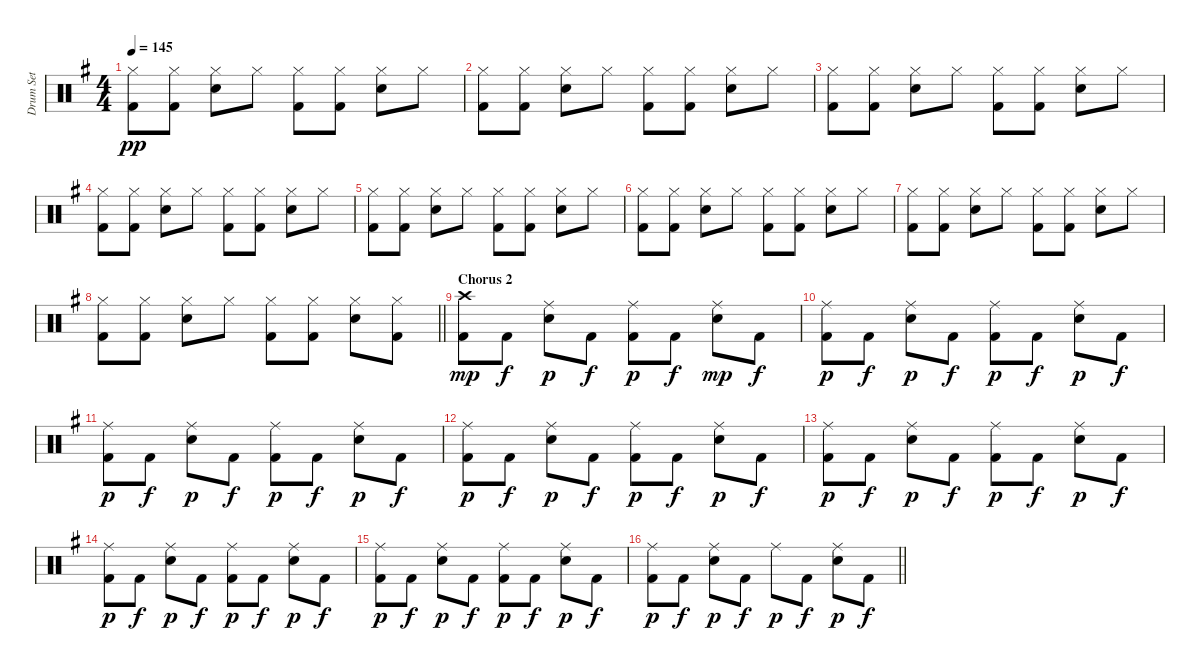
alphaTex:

\track ("Drum Set" "Drum Set") {instrument percussion}
\staff {score}
\articulation defaults
\ts (4 4)
\tempo 145
\clef neutral
\ks g
("Hi-Hat (closed)" "Kick (hit) 2").8{dy pp} ("Hi-Hat (closed)" "Kick (hit) 2").8 ("Hi-Hat (closed)" "Electric Snare (hit)").8 "Hi-Hat (closed)".8 ("Hi-Hat (closed)" "Kick (hit) 2").8 ("Hi-Hat (closed)" "Kick (hit) 2").8 ("Hi-Hat (closed)" "Electric Snare (hit)").8 "Hi-Hat (closed)".8 |
("Hi-Hat (closed)" "Kick (hit) 2").8 ("Hi-Hat (closed)" "Kick (hit) 2").8 ("Hi-Hat (closed)" "Electric Snare (hit)").8 "Hi-Hat (closed)".8 ("Hi-Hat (closed)" "Kick (hit) 2").8 ("Hi-Hat (closed)" "Kick (hit) 2").8 ("Hi-Hat (closed)" "Electric Snare (hit)").8 "Hi-Hat (closed)".8 |
("Hi-Hat (closed)" "Kick (hit) 2").8 ("Hi-Hat (closed)" "Kick (hit) 2").8 ("Hi-Hat (closed)" "Electric Snare (hit)").8 "Hi-Hat (closed)".8 ("Hi-Hat (closed)" "Kick (hit) 2").8 ("Hi-Hat (closed)" "Kick (hit) 2").8 ("Hi-Hat (closed)" "Electric Snare (hit)").8 "Hi-Hat (closed)".8 |
("Hi-Hat (closed)" "Kick (hit) 2").8 ("Hi-Hat (closed)" "Kick (hit) 2").8 ("Hi-Hat (closed)" "Electric Snare (hit)").8 "Hi-Hat (closed)".8 ("Hi-Hat (closed)" "Kick (hit) 2").8 ("Hi-Hat (closed)" "Kick (hit) 2").8 ("Hi-Hat (closed)" "Electric Snare (hit)").8 "Hi-Hat (closed)".8 |
("Hi-Hat (closed)" "Kick (hit) 2").8 ("Hi-Hat (closed)" "Kick (hit) 2").8 ("Hi-Hat (closed)" "Electric Snare (hit)").8 "Hi-Hat (closed)".8 ("Hi-Hat (closed)" "Kick (hit) 2").8 ("Hi-Hat (closed)" "Kick (hit) 2").8 ("Hi-Hat (closed)" "Electric Snare (hit)").8 "Hi-Hat (closed)".8 |
("Hi-Hat (closed)" "Kick (hit) 2").8 ("Hi-Hat (closed)" "Kick (hit) 2").8 ("Hi-Hat (closed)" "Electric Snare (hit)").8 "Hi-Hat (closed)".8 ("Hi-Hat (closed)" "Kick (hit) 2").8 ("Hi-Hat (closed)" "Kick (hit) 2").8 ("Hi-Hat (closed)" "Electric Snare (hit)").8 "Hi-Hat (closed)".8 |
("Hi-Hat (closed)" "Kick (hit) 2").8 ("Hi-Hat (closed)" "Kick (hit) 2").8 ("Hi-Hat (closed)" "Electric Snare (hit)").8 "Hi-Hat (closed)".8 ("Hi-Hat (closed)" "Kick (hit) 2").8 ("Hi-Hat (closed)" "Kick (hit) 2").8 ("Hi-Hat (closed)" "Electric Snare (hit)").8 "Hi-Hat (closed)".8 |
\barLineRight lightlight
("Hi-Hat (closed)" "Kick (hit) 2").8 ("Hi-Hat (closed)" "Kick (hit) 2").8 ("Hi-Hat (closed)" "Electric Snare (hit)").8 "Hi-Hat (closed)".8 ("Hi-Hat (closed)" "Kick (hit) 2").8 ("Hi-Hat (closed)" "Kick (hit) 2").8 ("Hi-Hat (closed)" "Electric Snare (hit)").8 ("Hi-Hat (closed)" "Kick (hit) 2").8 |
\section ("" "Chorus 2")
("Crash high (hit)" "Kick (hit) 2").8{dy mp} "Kick (hit) 2".8{dy f} ("Electric Snare (hit)" "Ride (middle)").8{dy p} "Kick (hit) 2".8{dy f} ("Kick (hit) 2" "Ride (middle)").8{dy p} "Kick (hit) 2".8{dy f} ("Electric Snare (hit)" "Ride (middle)").8{dy mp} "Kick (hit) 2".8{dy f} |
("Kick (hit) 2" "Ride (middle)").8{dy p} "Kick (hit) 2".8{dy f} ("Electric Snare (hit)" "Ride (middle)").8{dy p} "Kick (hit) 2".8{dy f} ("Kick (hit) 2" "Ride (middle)").8{dy p} "Kick (hit) 2".8{dy f} ("Electric Snare (hit)" "Ride (middle)").8{dy p} "Kick (hit) 2".8{dy f} |
("Kick (hit) 2" "Ride (middle)").8{dy p} "Kick (hit) 2".8{dy f} ("Electric Snare (hit)" "Ride (middle)").8{dy p} "Kick (hit) 2".8{dy f} ("Kick (hit) 2" "Ride (middle)").8{dy p} "Kick (hit) 2".8{dy f} ("Electric Snare (hit)" "Ride (middle)").8{dy p} "Kick (hit) 2".8{dy f} |
("Kick (hit) 2" "Ride (middle)").8{dy p} "Kick (hit) 2".8{dy f} ("Electric Snare (hit)" "Ride (middle)").8{dy p} "Kick (hit) 2".8{dy f} ("Kick (hit) 2" "Ride (middle)").8{dy p} "Kick (hit) 2".8{dy f} ("Electric Snare (hit)" "Ride (middle)").8{dy p} "Kick (hit) 2".8{dy f} |
("Kick (hit) 2" "Ride (middle)").8{dy p} "Kick (hit) 2".8{dy f} ("Electric Snare (hit)" "Ride (middle)").8{dy p} "Kick (hit) 2".8{dy f} ("Kick (hit) 2" "Ride (middle)").8{dy p} "Kick (hit) 2".8{dy f} ("Electric Snare (hit)" "Ride (middle)").8{dy p} "Kick (hit) 2".8{dy f} |
("Kick (hit) 2" "Ride (middle)").8{dy p} "Kick (hit) 2".8{dy f} ("Electric Snare (hit)" "Ride (middle)").8{dy p} "Kick (hit) 2".8{dy f} ("Kick (hit) 2" "Ride (middle)").8{dy p} "Kick (hit) 2".8{dy f} ("Electric Snare (hit)" "Ride (middle)").8{dy p} "Kick (hit) 2".8{dy f} |
("Kick (hit) 2" "Ride (middle)").8{dy p} "Kick (hit) 2".8{dy f} ("Electric Snare (hit)" "Ride (middle)").8{dy p} "Kick (hit) 2".8{dy f} ("Kick (hit) 2" "Ride (middle)").8{dy p} "Kick (hit) 2".8{dy f} ("Electric Snare (hit)" "Ride (middle)").8{dy p} "Kick (hit) 2".8{dy f} |
\barLineRight lightlight
("Kick (hit) 2" "Ride (middle)").8{dy p} "Kick (hit) 2".8{dy f} ("Electric Snare (hit)" "Ride (middle)").8{dy p} "Kick (hit) 2".8{dy f} "Ride (middle)".8{dy p} "Kick (hit) 2".8{dy f} ("Electric Snare (hit)" "Ride (middle)").8{dy p} "Kick (hit) 2".8{dy f}
